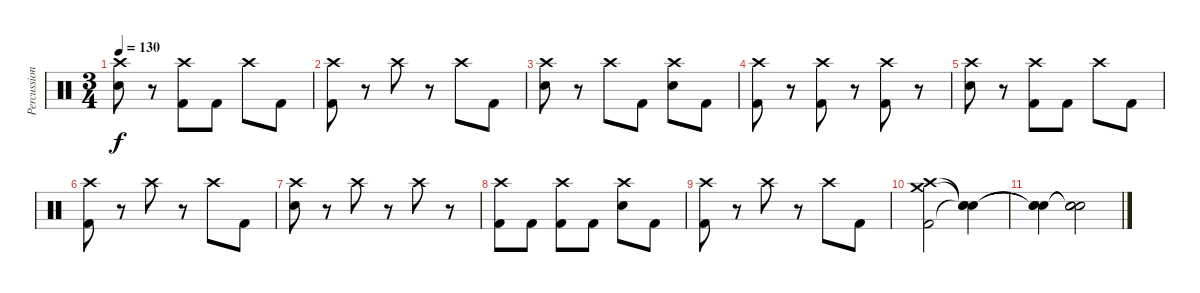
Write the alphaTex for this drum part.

\track ("Percussion" "Percussion") {instrument percussion}
\staff {score}
\articulation defaults
\ts (3 4)
\tempo 130
\clef neutral
\ks c
("Crash high (hit)" "Electric Snare (hit)").8{dy f} r.8 ("Crash high (hit)" "Kick (hit) 2").8 "Kick (hit) 2".8 "Crash high (hit)".8 "Kick (hit) 2".8 |
("Crash high (hit)" "Kick (hit) 2").8 r.8 "Crash high (hit)".8 r.8 "Crash high (hit)".8 "Kick (hit) 2".8 |
("Crash high (hit)" "Electric Snare (hit)").8 r.8 "Crash high (hit)".8 "Kick (hit) 2".8 ("Crash high (hit)" "Electric Snare (hit)").8 "Kick (hit) 2".8 |
("Crash high (hit)" "Kick (hit) 2").8 r.8 ("Crash high (hit)" "Kick (hit) 2").8 r.8 ("Crash high (hit)" "Kick (hit) 2").8 r.8 |
("Crash high (hit)" "Electric Snare (hit)").8 r.8 ("Crash high (hit)" "Kick (hit) 2").8 "Kick (hit) 2".8 "Crash high (hit)".8 "Kick (hit) 2".8 |
("Crash high (hit)" "Kick (hit) 2").8 r.8 "Crash high (hit)".8 r.8 "Crash high (hit)".8 "Kick (hit) 2".8 |
("Crash high (hit)" "Electric Snare (hit)").8 r.8 "Crash high (hit)".8 r.8 "Crash high (hit)".8 r.8 |
("Crash high (hit)" "Kick (hit) 2").8 "Kick (hit) 2".8 ("Crash high (hit)" "Kick (hit) 2").8 "Kick (hit) 2".8 ("Crash high (hit)" "Electric Snare (hit)").8 "Kick (hit) 2".8 |
("Crash high (hit)" "Kick (hit) 2").8 r.8 "Crash high (hit)".8 r.8 "Crash high (hit)".8 "Kick (hit) 2".8 |
("Crash high (hit)" "Crash medium (hit)" "Kick (hit) 2").2 ("Snare (hit)"{t} "Snare (hit)"{t} "Snare (hit)"{t}).4 |
("Snare (hit)"{t} "Snare (hit)"{t} "Snare (hit)"{t}).4 ("Snare (hit)"{t} "Snare (hit)"{t} "Snare (hit)"{t}).2
